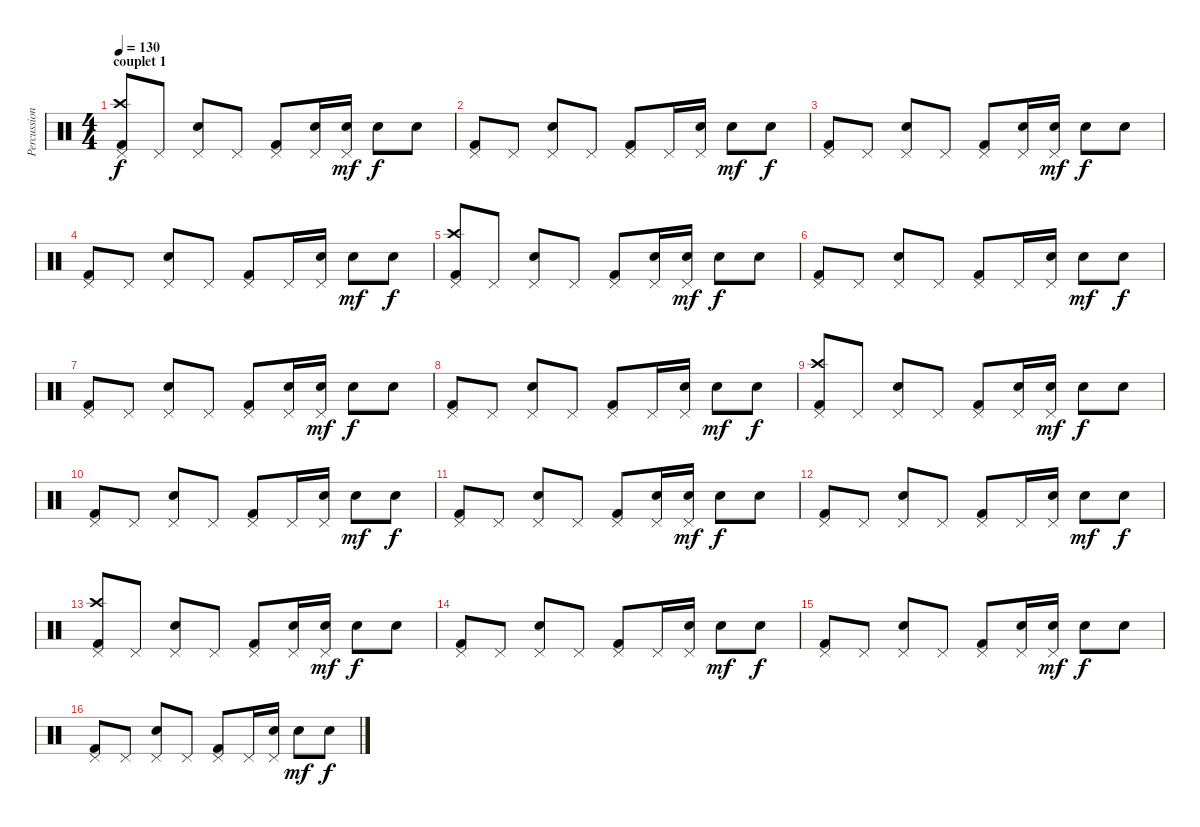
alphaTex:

\track ("Percussions" "Percussion") {instrument percussion}
\staff {score}
\articulation defaults
\ts (4 4)
\section ("" "couplet 1")
\tempo 130
\clef neutral
\ks c
("Pedal Hi-Hat (hit)" "Crash high (hit)" "Kick (hit) 2").8{dy f} "Pedal Hi-Hat (hit)".8 ("Pedal Hi-Hat (hit)" "Electric Snare (hit)").8 "Pedal Hi-Hat (hit)".8 ("Pedal Hi-Hat (hit)" "Kick (hit) 2").8 ("Pedal Hi-Hat (hit)" "Electric Snare (hit)").16 ("Pedal Hi-Hat (hit)" "Electric Snare (hit)").16{dy mf} "Electric Snare (hit)".8{dy f} "Electric Snare (hit)".8 |
("Pedal Hi-Hat (hit)" "Kick (hit) 2").8 "Pedal Hi-Hat (hit)".8 ("Pedal Hi-Hat (hit)" "Electric Snare (hit)").8 "Pedal Hi-Hat (hit)".8 ("Pedal Hi-Hat (hit)" "Kick (hit) 2").8 "Pedal Hi-Hat (hit)".16 ("Pedal Hi-Hat (hit)" "Electric Snare (hit)").16 "Electric Snare (hit)".8{dy mf} "Electric Snare (hit)".8{dy f} |
("Pedal Hi-Hat (hit)" "Kick (hit) 2").8 "Pedal Hi-Hat (hit)".8 ("Pedal Hi-Hat (hit)" "Electric Snare (hit)").8 "Pedal Hi-Hat (hit)".8 ("Pedal Hi-Hat (hit)" "Kick (hit) 2").8 ("Pedal Hi-Hat (hit)" "Electric Snare (hit)").16 ("Pedal Hi-Hat (hit)" "Electric Snare (hit)").16{dy mf} "Electric Snare (hit)".8{dy f} "Electric Snare (hit)".8 |
("Pedal Hi-Hat (hit)" "Kick (hit) 2").8 "Pedal Hi-Hat (hit)".8 ("Pedal Hi-Hat (hit)" "Electric Snare (hit)").8 "Pedal Hi-Hat (hit)".8 ("Pedal Hi-Hat (hit)" "Kick (hit) 2").8 "Pedal Hi-Hat (hit)".16 ("Pedal Hi-Hat (hit)" "Electric Snare (hit)").16 "Electric Snare (hit)".8{dy mf} "Electric Snare (hit)".8{dy f} |
("Pedal Hi-Hat (hit)" "Crash high (hit)" "Kick (hit) 2").8 "Pedal Hi-Hat (hit)".8 ("Pedal Hi-Hat (hit)" "Electric Snare (hit)").8 "Pedal Hi-Hat (hit)".8 ("Pedal Hi-Hat (hit)" "Kick (hit) 2").8 ("Pedal Hi-Hat (hit)" "Electric Snare (hit)").16 ("Pedal Hi-Hat (hit)" "Electric Snare (hit)").16{dy mf} "Electric Snare (hit)".8{dy f} "Electric Snare (hit)".8 |
("Pedal Hi-Hat (hit)" "Kick (hit) 2").8 "Pedal Hi-Hat (hit)".8 ("Pedal Hi-Hat (hit)" "Electric Snare (hit)").8 "Pedal Hi-Hat (hit)".8 ("Pedal Hi-Hat (hit)" "Kick (hit) 2").8 "Pedal Hi-Hat (hit)".16 ("Pedal Hi-Hat (hit)" "Electric Snare (hit)").16 "Electric Snare (hit)".8{dy mf} "Electric Snare (hit)".8{dy f} |
("Pedal Hi-Hat (hit)" "Kick (hit) 2").8 "Pedal Hi-Hat (hit)".8 ("Pedal Hi-Hat (hit)" "Electric Snare (hit)").8 "Pedal Hi-Hat (hit)".8 ("Pedal Hi-Hat (hit)" "Kick (hit) 2").8 ("Pedal Hi-Hat (hit)" "Electric Snare (hit)").16 ("Pedal Hi-Hat (hit)" "Electric Snare (hit)").16{dy mf} "Electric Snare (hit)".8{dy f} "Electric Snare (hit)".8 |
("Pedal Hi-Hat (hit)" "Kick (hit) 2").8 "Pedal Hi-Hat (hit)".8 ("Pedal Hi-Hat (hit)" "Electric Snare (hit)").8 "Pedal Hi-Hat (hit)".8 ("Pedal Hi-Hat (hit)" "Kick (hit) 2").8 "Pedal Hi-Hat (hit)".16 ("Pedal Hi-Hat (hit)" "Electric Snare (hit)").16 "Electric Snare (hit)".8{dy mf} "Electric Snare (hit)".8{dy f} |
("Pedal Hi-Hat (hit)" "Crash high (hit)" "Kick (hit) 2").8 "Pedal Hi-Hat (hit)".8 ("Pedal Hi-Hat (hit)" "Electric Snare (hit)").8 "Pedal Hi-Hat (hit)".8 ("Pedal Hi-Hat (hit)" "Kick (hit) 2").8 ("Pedal Hi-Hat (hit)" "Electric Snare (hit)").16 ("Pedal Hi-Hat (hit)" "Electric Snare (hit)").16{dy mf} "Electric Snare (hit)".8{dy f} "Electric Snare (hit)".8 |
("Pedal Hi-Hat (hit)" "Kick (hit) 2").8 "Pedal Hi-Hat (hit)".8 ("Pedal Hi-Hat (hit)" "Electric Snare (hit)").8 "Pedal Hi-Hat (hit)".8 ("Pedal Hi-Hat (hit)" "Kick (hit) 2").8 "Pedal Hi-Hat (hit)".16 ("Pedal Hi-Hat (hit)" "Electric Snare (hit)").16 "Electric Snare (hit)".8{dy mf} "Electric Snare (hit)".8{dy f} |
("Pedal Hi-Hat (hit)" "Kick (hit) 2").8 "Pedal Hi-Hat (hit)".8 ("Pedal Hi-Hat (hit)" "Electric Snare (hit)").8 "Pedal Hi-Hat (hit)".8 ("Pedal Hi-Hat (hit)" "Kick (hit) 2").8 ("Pedal Hi-Hat (hit)" "Electric Snare (hit)").16 ("Pedal Hi-Hat (hit)" "Electric Snare (hit)").16{dy mf} "Electric Snare (hit)".8{dy f} "Electric Snare (hit)".8 |
("Pedal Hi-Hat (hit)" "Kick (hit) 2").8 "Pedal Hi-Hat (hit)".8 ("Pedal Hi-Hat (hit)" "Electric Snare (hit)").8 "Pedal Hi-Hat (hit)".8 ("Pedal Hi-Hat (hit)" "Kick (hit) 2").8 "Pedal Hi-Hat (hit)".16 ("Pedal Hi-Hat (hit)" "Electric Snare (hit)").16 "Electric Snare (hit)".8{dy mf} "Electric Snare (hit)".8{dy f} |
("Pedal Hi-Hat (hit)" "Crash high (hit)" "Kick (hit) 2").8 "Pedal Hi-Hat (hit)".8 ("Pedal Hi-Hat (hit)" "Electric Snare (hit)").8 "Pedal Hi-Hat (hit)".8 ("Pedal Hi-Hat (hit)" "Kick (hit) 2").8 ("Pedal Hi-Hat (hit)" "Electric Snare (hit)").16 ("Pedal Hi-Hat (hit)" "Electric Snare (hit)").16{dy mf} "Electric Snare (hit)".8{dy f} "Electric Snare (hit)".8 |
("Pedal Hi-Hat (hit)" "Kick (hit) 2").8 "Pedal Hi-Hat (hit)".8 ("Pedal Hi-Hat (hit)" "Electric Snare (hit)").8 "Pedal Hi-Hat (hit)".8 ("Pedal Hi-Hat (hit)" "Kick (hit) 2").8 "Pedal Hi-Hat (hit)".16 ("Pedal Hi-Hat (hit)" "Electric Snare (hit)").16 "Electric Snare (hit)".8{dy mf} "Electric Snare (hit)".8{dy f} |
("Pedal Hi-Hat (hit)" "Kick (hit) 2").8 "Pedal Hi-Hat (hit)".8 ("Pedal Hi-Hat (hit)" "Electric Snare (hit)").8 "Pedal Hi-Hat (hit)".8 ("Pedal Hi-Hat (hit)" "Kick (hit) 2").8 ("Pedal Hi-Hat (hit)" "Electric Snare (hit)").16 ("Pedal Hi-Hat (hit)" "Electric Snare (hit)").16{dy mf} "Electric Snare (hit)".8{dy f} "Electric Snare (hit)".8 |
("Pedal Hi-Hat (hit)" "Kick (hit) 2").8 "Pedal Hi-Hat (hit)".8 ("Pedal Hi-Hat (hit)" "Electric Snare (hit)").8 "Pedal Hi-Hat (hit)".8 ("Pedal Hi-Hat (hit)" "Kick (hit) 2").8 "Pedal Hi-Hat (hit)".16 ("Pedal Hi-Hat (hit)" "Electric Snare (hit)").16 "Electric Snare (hit)".8{dy mf} "Electric Snare (hit)".8{dy f}
